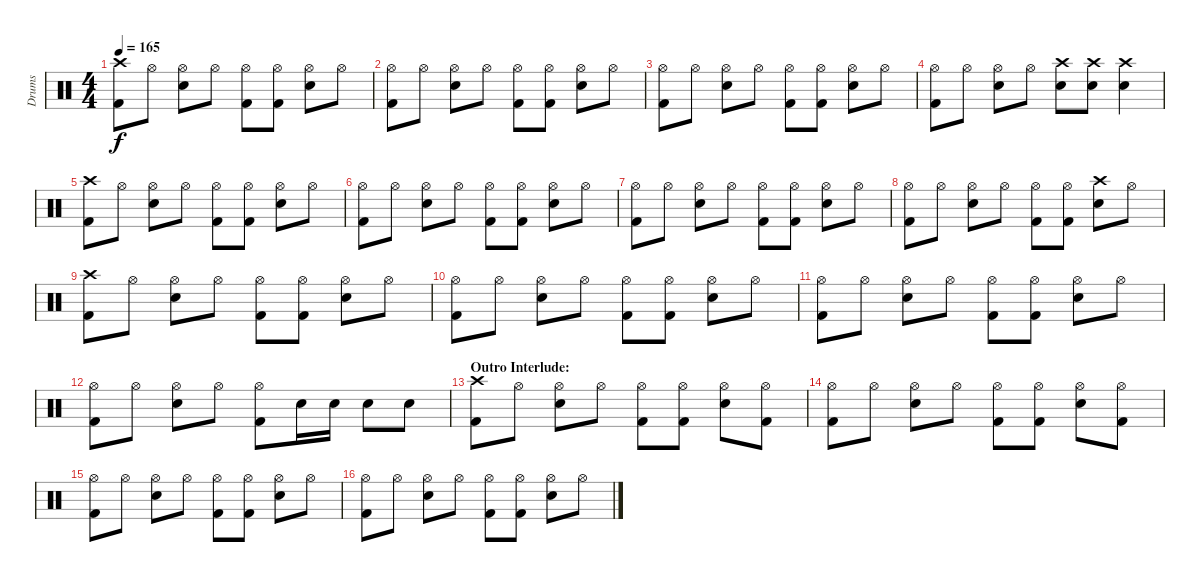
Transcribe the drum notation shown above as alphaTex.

\track ("Drums" "Drums") {instrument percussion}
\staff {score}
\articulation defaults
\ts (4 4)
\tempo 165
\clef neutral
\ks c
("Crash high (hit)" "Kick (hit) 2").8{dy f} "Hi-Hat (open)".8 ("Hi-Hat (open)" "Electric Snare (hit)").8 "Hi-Hat (open)".8 ("Hi-Hat (open)" "Kick (hit) 2").8 ("Hi-Hat (open)" "Kick (hit) 2").8 ("Hi-Hat (open)" "Electric Snare (hit)").8 "Hi-Hat (open)".8 |
("Hi-Hat (open)" "Kick (hit) 2").8 "Hi-Hat (open)".8 ("Hi-Hat (open)" "Electric Snare (hit)").8 "Hi-Hat (open)".8 ("Hi-Hat (open)" "Kick (hit) 2").8 ("Hi-Hat (open)" "Kick (hit) 2").8 ("Hi-Hat (open)" "Electric Snare (hit)").8 "Hi-Hat (open)".8 |
("Hi-Hat (open)" "Kick (hit) 2").8 "Hi-Hat (open)".8 ("Hi-Hat (open)" "Electric Snare (hit)").8 "Hi-Hat (open)".8 ("Hi-Hat (open)" "Kick (hit) 2").8 ("Hi-Hat (open)" "Kick (hit) 2").8 ("Hi-Hat (open)" "Electric Snare (hit)").8 "Hi-Hat (open)".8 |
("Hi-Hat (open)" "Kick (hit) 2").8 "Hi-Hat (open)".8 ("Hi-Hat (open)" "Electric Snare (hit)").8 "Hi-Hat (open)".8 ("Crash high (hit)" "Electric Snare (hit)").8 ("Crash high (hit)" "Electric Snare (hit)").8 ("Crash high (hit)" "Electric Snare (hit)").4 |
("Crash high (hit)" "Kick (hit) 2").8 "Hi-Hat (open)".8 ("Hi-Hat (open)" "Electric Snare (hit)").8 "Hi-Hat (open)".8 ("Hi-Hat (open)" "Kick (hit) 2").8 ("Hi-Hat (open)" "Kick (hit) 2").8 ("Hi-Hat (open)" "Electric Snare (hit)").8 "Hi-Hat (open)".8 |
("Hi-Hat (open)" "Kick (hit) 2").8 "Hi-Hat (open)".8 ("Hi-Hat (open)" "Electric Snare (hit)").8 "Hi-Hat (open)".8 ("Hi-Hat (open)" "Kick (hit) 2").8 ("Hi-Hat (open)" "Kick (hit) 2").8 ("Hi-Hat (open)" "Electric Snare (hit)").8 "Hi-Hat (open)".8 |
("Hi-Hat (open)" "Kick (hit) 2").8 "Hi-Hat (open)".8 ("Hi-Hat (open)" "Electric Snare (hit)").8 "Hi-Hat (open)".8 ("Hi-Hat (open)" "Kick (hit) 2").8 ("Hi-Hat (open)" "Kick (hit) 2").8 ("Hi-Hat (open)" "Electric Snare (hit)").8 "Hi-Hat (open)".8 |
("Hi-Hat (open)" "Kick (hit) 2").8 "Hi-Hat (open)".8 ("Hi-Hat (open)" "Electric Snare (hit)").8 "Hi-Hat (open)".8 ("Hi-Hat (open)" "Kick (hit) 2").8 ("Hi-Hat (open)" "Kick (hit) 2").8 ("Crash high (hit)" "Electric Snare (hit)").8 "Hi-Hat (open)".8 |
("Crash high (hit)" "Kick (hit) 2").8 "Hi-Hat (open)".8 ("Hi-Hat (open)" "Electric Snare (hit)").8 "Hi-Hat (open)".8 ("Hi-Hat (open)" "Kick (hit) 2").8 ("Hi-Hat (open)" "Kick (hit) 2").8 ("Hi-Hat (open)" "Electric Snare (hit)").8 "Hi-Hat (open)".8 |
("Hi-Hat (open)" "Kick (hit) 2").8 "Hi-Hat (open)".8 ("Hi-Hat (open)" "Electric Snare (hit)").8 "Hi-Hat (open)".8 ("Hi-Hat (open)" "Kick (hit) 2").8 ("Hi-Hat (open)" "Kick (hit) 2").8 ("Hi-Hat (open)" "Electric Snare (hit)").8 "Hi-Hat (open)".8 |
("Hi-Hat (open)" "Kick (hit) 2").8 "Hi-Hat (open)".8 ("Hi-Hat (open)" "Electric Snare (hit)").8 "Hi-Hat (open)".8 ("Hi-Hat (open)" "Kick (hit) 2").8 ("Hi-Hat (open)" "Kick (hit) 2").8 ("Hi-Hat (open)" "Electric Snare (hit)").8 "Hi-Hat (open)".8 |
("Hi-Hat (open)" "Kick (hit) 2").8 "Hi-Hat (open)".8 ("Hi-Hat (open)" "Electric Snare (hit)").8 "Hi-Hat (open)".8 ("Hi-Hat (open)" "Kick (hit) 2").8 "Electric Snare (hit)".16 "Electric Snare (hit)".16 "Electric Snare (hit)".8 "Electric Snare (hit)".8 |
\section ("" "Outro Interlude:")
("Crash high (hit)" "Kick (hit) 2").8 "Hi-Hat (open)".8 ("Hi-Hat (open)" "Electric Snare (hit)").8 "Hi-Hat (open)".8 ("Hi-Hat (open)" "Kick (hit) 2").8 ("Hi-Hat (open)" "Kick (hit) 2").8 ("Hi-Hat (open)" "Electric Snare (hit)").8 ("Hi-Hat (open)" "Kick (hit) 2").8 |
("Hi-Hat (open)" "Kick (hit) 2").8 "Hi-Hat (open)".8 ("Hi-Hat (open)" "Electric Snare (hit)").8 "Hi-Hat (open)".8 ("Hi-Hat (open)" "Kick (hit) 2").8 ("Hi-Hat (open)" "Kick (hit) 2").8 ("Hi-Hat (open)" "Electric Snare (hit)").8 ("Hi-Hat (open)" "Kick (hit) 2").8 |
("Hi-Hat (open)" "Kick (hit) 2").8 "Hi-Hat (open)".8 ("Hi-Hat (open)" "Electric Snare (hit)").8 "Hi-Hat (open)".8 ("Hi-Hat (open)" "Kick (hit) 2").8 ("Hi-Hat (open)" "Kick (hit) 2").8 ("Hi-Hat (open)" "Electric Snare (hit)").8 "Hi-Hat (open)".8 |
("Hi-Hat (open)" "Kick (hit) 2").8 "Hi-Hat (open)".8 ("Hi-Hat (open)" "Electric Snare (hit)").8 "Hi-Hat (open)".8 ("Hi-Hat (open)" "Kick (hit) 2").8 ("Hi-Hat (open)" "Kick (hit) 2").8 ("Hi-Hat (open)" "Electric Snare (hit)").8 "Hi-Hat (open)".8
